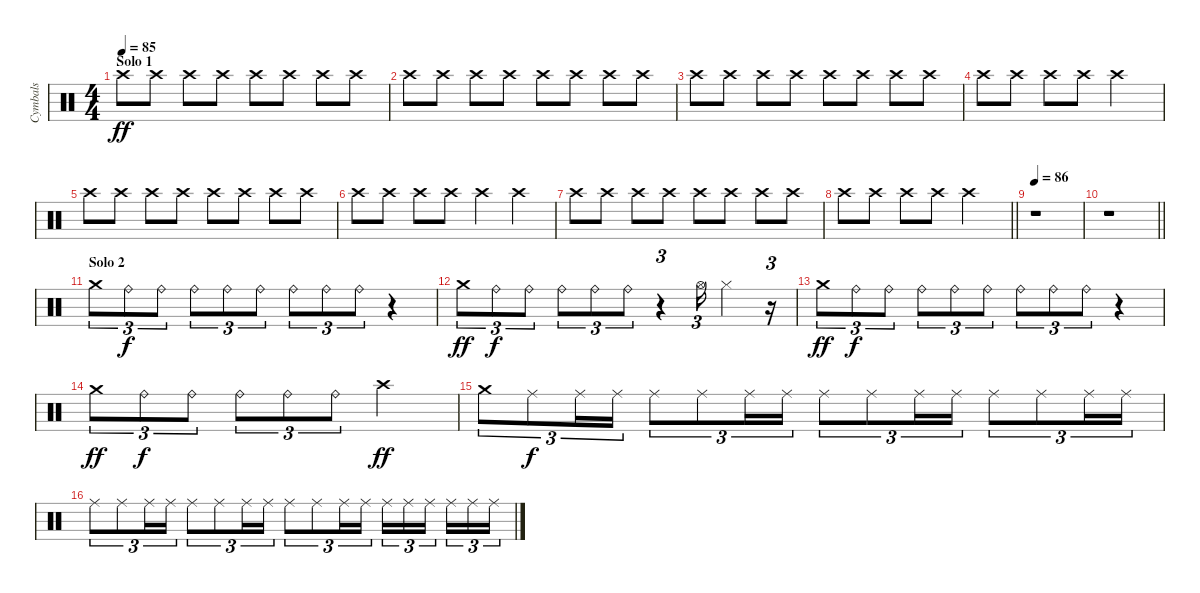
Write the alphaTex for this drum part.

\track ("Cymbals" "Cymbals") {instrument percussion}
\staff {score}
\articulation defaults
\ts (4 4)
\section ("" "Solo 1")
\tempo 85
\clef neutral
\ks c "Crash high (hit)".8{dy ff} "Crash high (hit)".8 "Crash high (hit)".8 "Crash high (hit)".8 "Crash high (hit)".8 "Crash high (hit)".8 "Crash high (hit)".8 "Crash high (hit)".8
|
"Crash high (hit)".8 "Crash high (hit)".8 "Crash high (hit)".8 "Crash high (hit)".8 "Crash high (hit)".8 "Crash high (hit)".8 "Crash high (hit)".8 "Crash high (hit)".8 |
"Crash high (hit)".8 "Crash high (hit)".8 "Crash high (hit)".8 "Crash high (hit)".8 "Crash high (hit)".8 "Crash high (hit)".8 "Crash high (hit)".8 "Crash high (hit)".8 |
"Crash high (hit)".8 "Crash high (hit)".8 "Crash high (hit)".8 "Crash high (hit)".8 "Crash high (hit)".2 |
"Crash high (hit)".8 "Crash high (hit)".8 "Crash high (hit)".8 "Crash high (hit)".8 "Crash high (hit)".8 "Crash high (hit)".8 "Crash high (hit)".8 "Crash high (hit)".8 |
"Crash high (hit)".8 "Crash high (hit)".8 "Crash high (hit)".8 "Crash high (hit)".8 "Crash high (hit)".4 "Crash high (hit)".4 |
"Crash high (hit)".8 "Crash high (hit)".8 "Crash high (hit)".8 "Crash high (hit)".8 "Crash high (hit)".8 "Crash high (hit)".8 "Crash high (hit)".8 "Crash high (hit)".8 |
\barLineRight lightlight "Crash high (hit)".8 "Crash high (hit)".8 "Crash high (hit)".8 "Crash high (hit)".8 "Crash high (hit)".2
|
\tempo 86
r.1 |
\barLineRight lightlight
r.1 |
\section ("" "Solo 2")
"Crash medium (hit)".8{tu (3 2)} "Ride (bell)".8{tu (3 2) dy f} "Ride (bell)".8{tu (3 2)} "Ride (bell)".8{tu (3 2)} "Ride (bell)".8{tu (3 2)} "Ride (bell)".8{tu (3 2)} "Ride (bell)".8{tu (3 2)} "Ride (bell)".8{tu (3 2)} "Ride (bell)".8{tu (3 2)} r.4 |
"Crash medium (hit)".8{tu (3 2) dy ff} "Ride (bell)".8{tu (3 2) dy f} "Ride (bell)".8{tu (3 2)} "Ride (bell)".8{tu (3 2)} "Ride (bell)".8{tu (3 2)} "Ride (bell)".8{tu (3 2)} r.4{tu (3 2)} "Hi-Hat (open)".16{tu (3 2)} "Hi-Hat (closed)".4 r.16{tu (3 2)} |
"Crash medium (hit)".8{tu (3 2) dy ff} "Ride (bell)".8{tu (3 2) dy f} "Ride (bell)".8{tu (3 2)} "Ride (bell)".8{tu (3 2)} "Ride (bell)".8{tu (3 2)} "Ride (bell)".8{tu (3 2)} "Ride (bell)".8{tu (3 2)} "Ride (bell)".8{tu (3 2)} "Ride (bell)".8{tu (3 2)} r.4 |
"Crash medium (hit)".8{tu (3 2) dy ff} "Ride (bell)".8{tu (3 2) dy f} "Ride (bell)".8{tu (3 2)} "Ride (bell)".8{tu (3 2)} "Ride (bell)".8{tu (3 2)} "Ride (bell)".8{tu (3 2)} "Crash high (hit)".2{dy ff} |
"Crash medium (hit)".8{tu (3 2)} "Ride (middle)".8{tu (3 2) dy f} "Ride (middle)".16{tu (3 2)} "Ride (middle)".16{tu (3 2)} "Ride (middle)".8{tu (3 2)} "Ride (middle)".8{tu (3 2)} "Ride (middle)".16{tu (3 2)} "Ride (middle)".16{tu (3 2)} "Ride (middle)".8{tu (3 2)} "Ride (middle)".8{tu (3 2)} "Ride (middle)".16{tu (3 2)} "Ride (middle)".16{tu (3 2)} "Ride (middle)".8{tu (3 2)} "Ride (middle)".8{tu (3 2)} "Ride (middle)".16{tu (3 2)} "Ride (middle)".16{tu (3 2)} |
"Ride (middle)".8{tu (3 2)} "Ride (middle)".8{tu (3 2)} "Ride (middle)".16{tu (3 2)} "Ride (middle)".16{tu (3 2)} "Ride (middle)".8{tu (3 2)} "Ride (middle)".8{tu (3 2)} "Ride (middle)".16{tu (3 2)} "Ride (middle)".16{tu (3 2)} "Ride (middle)".8{tu (3 2)} "Ride (middle)".8{tu (3 2)} "Ride (middle)".16{tu (3 2)} "Ride (middle)".16{tu (3 2)} "Ride (middle)".16{tu (3 2)} "Ride (middle)".16{tu (3 2)} "Ride (middle)".16{tu (3 2) beam splitsecondary} "Ride (middle)".16{tu (3 2)} "Ride (middle)".16{tu (3 2)} "Ride (middle)".16{tu (3 2)}
